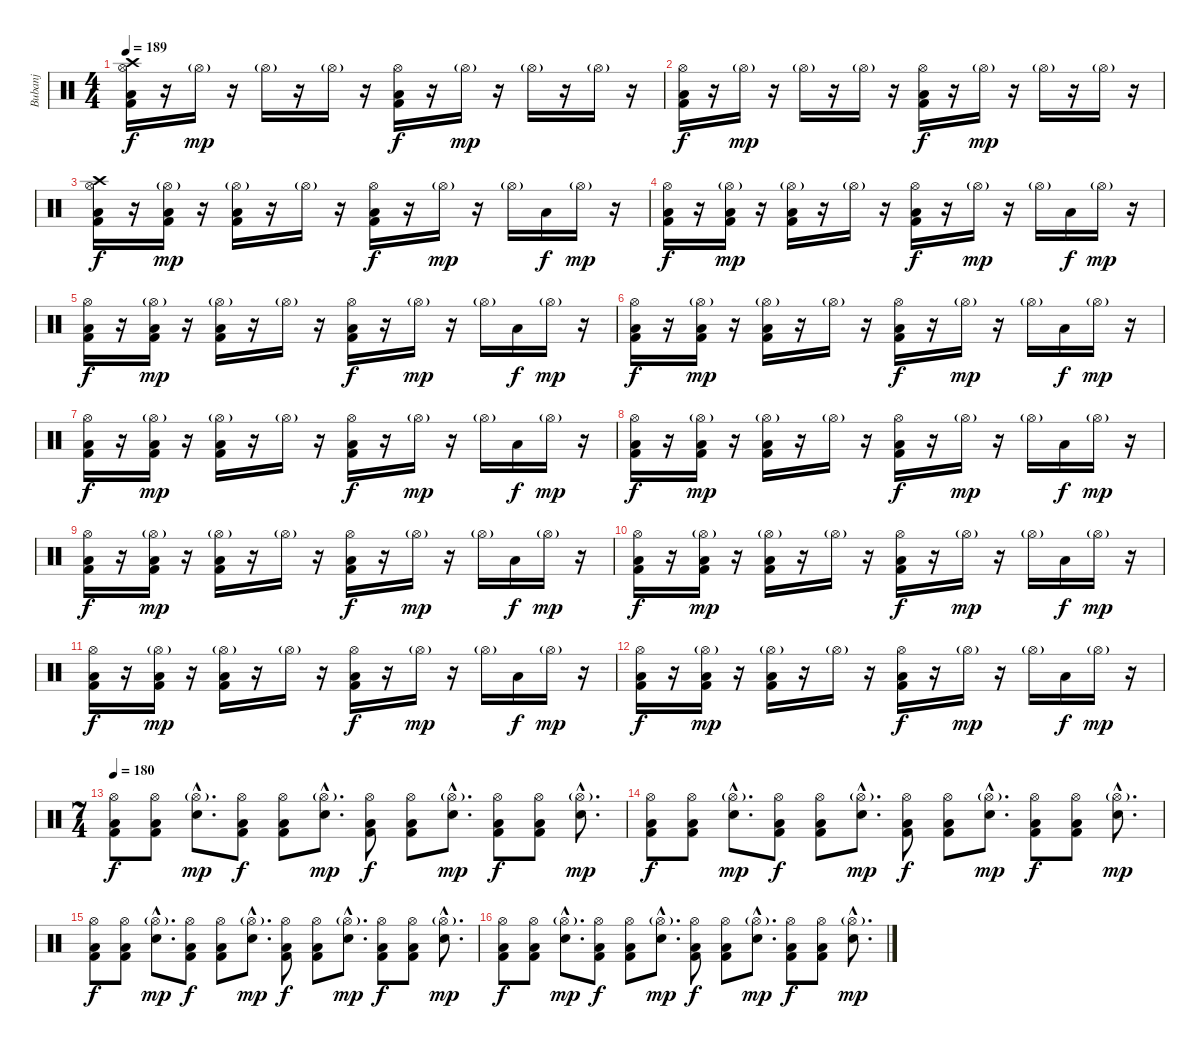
\track ("Bubanj" "Bubanj") {instrument percussion}
\staff {score}
\articulation defaults
\ts (4 4)
\tempo 189
\clef neutral
\ks c
("Hi-Hat (open)" "Crash high (hit)" "Kick (hit) 2" "Low Tom (hit)").16{dy f} r.16 "Hi-Hat (open)"{g}.16{dy mp} r.16 "Hi-Hat (open)"{g}.16 r.16 "Hi-Hat (open)"{g}.16 r.16 ("Hi-Hat (open)" "Kick (hit) 2" "Low Tom (hit)").16{dy f} r.16 "Hi-Hat (open)"{g}.16{dy mp} r.16 "Hi-Hat (open)"{g}.16 r.16 "Hi-Hat (open)"{g}.16 r.16 |
("Hi-Hat (open)" "Kick (hit) 2" "Low Tom (hit)").16{dy f} r.16 "Hi-Hat (open)"{g}.16{dy mp} r.16 "Hi-Hat (open)"{g}.16 r.16 "Hi-Hat (open)"{g}.16 r.16 ("Hi-Hat (open)" "Kick (hit) 2" "Low Tom (hit)").16{dy f} r.16 "Hi-Hat (open)"{g}.16{dy mp} r.16 "Hi-Hat (open)"{g}.16 r.16 "Hi-Hat (open)"{g}.16 r.16 |
("Hi-Hat (open)" "Crash high (hit)" "Kick (hit) 2" "Low Tom (hit)").16{dy f} r.16 ("Hi-Hat (open)"{g} "Kick (hit) 2" "Low Tom (hit)").16{dy mp} r.16 ("Hi-Hat (open)"{g} "Kick (hit) 2" "Low Tom (hit)").16 r.16 "Hi-Hat (open)"{g}.16 r.16 ("Hi-Hat (open)" "Kick (hit) 2" "Low Tom (hit)").16{dy f} r.16 "Hi-Hat (open)"{g}.16{dy mp} r.16 "Hi-Hat (open)"{g}.16 "Low Tom (hit)".16{dy f} "Hi-Hat (open)"{g}.16{dy mp} r.16 |
("Hi-Hat (open)" "Kick (hit) 2" "Low Tom (hit)").16{dy f} r.16 ("Hi-Hat (open)"{g} "Kick (hit) 2" "Low Tom (hit)").16{dy mp} r.16 ("Hi-Hat (open)"{g} "Kick (hit) 2" "Low Tom (hit)").16 r.16 "Hi-Hat (open)"{g}.16 r.16 ("Hi-Hat (open)" "Kick (hit) 2" "Low Tom (hit)").16{dy f} r.16 "Hi-Hat (open)"{g}.16{dy mp} r.16 "Hi-Hat (open)"{g}.16 "Low Tom (hit)".16{dy f} "Hi-Hat (open)"{g}.16{dy mp} r.16 |
("Hi-Hat (open)" "Kick (hit) 2" "Low Tom (hit)").16{dy f} r.16 ("Hi-Hat (open)"{g} "Kick (hit) 2" "Low Tom (hit)").16{dy mp} r.16 ("Hi-Hat (open)"{g} "Kick (hit) 2" "Low Tom (hit)").16 r.16 "Hi-Hat (open)"{g}.16 r.16 ("Hi-Hat (open)" "Kick (hit) 2" "Low Tom (hit)").16{dy f} r.16 "Hi-Hat (open)"{g}.16{dy mp} r.16 "Hi-Hat (open)"{g}.16 "Low Tom (hit)".16{dy f} "Hi-Hat (open)"{g}.16{dy mp} r.16 |
("Hi-Hat (open)" "Kick (hit) 2" "Low Tom (hit)").16{dy f} r.16 ("Hi-Hat (open)"{g} "Kick (hit) 2" "Low Tom (hit)").16{dy mp} r.16 ("Hi-Hat (open)"{g} "Kick (hit) 2" "Low Tom (hit)").16 r.16 "Hi-Hat (open)"{g}.16 r.16 ("Hi-Hat (open)" "Kick (hit) 2" "Low Tom (hit)").16{dy f} r.16 "Hi-Hat (open)"{g}.16{dy mp} r.16 "Hi-Hat (open)"{g}.16 "Low Tom (hit)".16{dy f} "Hi-Hat (open)"{g}.16{dy mp} r.16 |
("Hi-Hat (open)" "Kick (hit) 2" "Low Tom (hit)").16{dy f} r.16 ("Hi-Hat (open)"{g} "Kick (hit) 2" "Low Tom (hit)").16{dy mp} r.16 ("Hi-Hat (open)"{g} "Kick (hit) 2" "Low Tom (hit)").16 r.16 "Hi-Hat (open)"{g}.16 r.16 ("Hi-Hat (open)" "Kick (hit) 2" "Low Tom (hit)").16{dy f} r.16 "Hi-Hat (open)"{g}.16{dy mp} r.16 "Hi-Hat (open)"{g}.16 "Low Tom (hit)".16{dy f} "Hi-Hat (open)"{g}.16{dy mp} r.16 |
("Hi-Hat (open)" "Kick (hit) 2" "Low Tom (hit)").16{dy f} r.16 ("Hi-Hat (open)"{g} "Kick (hit) 2" "Low Tom (hit)").16{dy mp} r.16 ("Hi-Hat (open)"{g} "Kick (hit) 2" "Low Tom (hit)").16 r.16 "Hi-Hat (open)"{g}.16 r.16 ("Hi-Hat (open)" "Kick (hit) 2" "Low Tom (hit)").16{dy f} r.16 "Hi-Hat (open)"{g}.16{dy mp} r.16 "Hi-Hat (open)"{g}.16 "Low Tom (hit)".16{dy f} "Hi-Hat (open)"{g}.16{dy mp} r.16 |
("Hi-Hat (open)" "Kick (hit) 2" "Low Tom (hit)").16{dy f} r.16 ("Hi-Hat (open)"{g} "Kick (hit) 2" "Low Tom (hit)").16{dy mp} r.16 ("Hi-Hat (open)"{g} "Kick (hit) 2" "Low Tom (hit)").16 r.16 "Hi-Hat (open)"{g}.16 r.16 ("Hi-Hat (open)" "Kick (hit) 2" "Low Tom (hit)").16{dy f} r.16 "Hi-Hat (open)"{g}.16{dy mp} r.16 "Hi-Hat (open)"{g}.16 "Low Tom (hit)".16{dy f} "Hi-Hat (open)"{g}.16{dy mp} r.16 |
("Hi-Hat (open)" "Kick (hit) 2" "Low Tom (hit)").16{dy f} r.16 ("Hi-Hat (open)"{g} "Kick (hit) 2" "Low Tom (hit)").16{dy mp} r.16 ("Hi-Hat (open)"{g} "Kick (hit) 2" "Low Tom (hit)").16 r.16 "Hi-Hat (open)"{g}.16 r.16 ("Hi-Hat (open)" "Kick (hit) 2" "Low Tom (hit)").16{dy f} r.16 "Hi-Hat (open)"{g}.16{dy mp} r.16 "Hi-Hat (open)"{g}.16 "Low Tom (hit)".16{dy f} "Hi-Hat (open)"{g}.16{dy mp} r.16 |
("Hi-Hat (open)" "Kick (hit) 2" "Low Tom (hit)").16{dy f} r.16 ("Hi-Hat (open)"{g} "Kick (hit) 2" "Low Tom (hit)").16{dy mp} r.16 ("Hi-Hat (open)"{g} "Kick (hit) 2" "Low Tom (hit)").16 r.16 "Hi-Hat (open)"{g}.16 r.16 ("Hi-Hat (open)" "Kick (hit) 2" "Low Tom (hit)").16{dy f} r.16 "Hi-Hat (open)"{g}.16{dy mp} r.16 "Hi-Hat (open)"{g}.16 "Low Tom (hit)".16{dy f} "Hi-Hat (open)"{g}.16{dy mp} r.16 |
("Hi-Hat (open)" "Kick (hit) 2" "Low Tom (hit)").16{dy f} r.16 ("Hi-Hat (open)"{g} "Kick (hit) 2" "Low Tom (hit)").16{dy mp} r.16 ("Hi-Hat (open)"{g} "Kick (hit) 2" "Low Tom (hit)").16 r.16 "Hi-Hat (open)"{g}.16 r.16 ("Hi-Hat (open)" "Kick (hit) 2" "Low Tom (hit)").16{dy f} r.16 "Hi-Hat (open)"{g}.16{dy mp} r.16 "Hi-Hat (open)"{g}.16 "Low Tom (hit)".16{dy f} "Hi-Hat (open)"{g}.16{dy mp} r.16 |
\ts (7 4)
\tempo 180
("Hi-Hat (open)" "Kick (hit) 2" "Low Tom (hit)").8{dy f} ("Hi-Hat (open)" "Kick (hit) 2" "Low Tom (hit)").8 ("Hi-Hat (open)"{g hac} "Electric Snare (hit)"{hac}).8{d dy mp} ("Hi-Hat (open)" "Kick (hit) 2" "Low Tom (hit)").8{dy f} ("Hi-Hat (open)" "Kick (hit) 2" "Low Tom (hit)").8 ("Hi-Hat (open)"{g hac} "Electric Snare (hit)"{hac}).8{d dy mp} ("Hi-Hat (open)" "Low Tom (hit)" "Kick (hit) 2").8{dy f} ("Hi-Hat (open)" "Low Tom (hit)" "Kick (hit) 2").8 ("Hi-Hat (open)"{g hac} "Electric Snare (hit)"{hac}).8{d dy mp} ("Hi-Hat (open)" "Low Tom (hit)" "Kick (hit) 2").8{dy f} ("Hi-Hat (open)" "Low Tom (hit)" "Kick (hit) 2").8 ("Hi-Hat (open)"{g hac} "Electric Snare (hit)"{hac}).8{d dy mp} |
("Hi-Hat (open)" "Kick (hit) 2" "Low Tom (hit)").8{dy f} ("Hi-Hat (open)" "Kick (hit) 2" "Low Tom (hit)").8 ("Hi-Hat (open)"{g hac} "Electric Snare (hit)"{hac}).8{d dy mp} ("Hi-Hat (open)" "Kick (hit) 2" "Low Tom (hit)").8{dy f} ("Hi-Hat (open)" "Kick (hit) 2" "Low Tom (hit)").8 ("Hi-Hat (open)"{g hac} "Electric Snare (hit)"{hac}).8{d dy mp} ("Hi-Hat (open)" "Low Tom (hit)" "Kick (hit) 2").8{dy f} ("Hi-Hat (open)" "Low Tom (hit)" "Kick (hit) 2").8 ("Hi-Hat (open)"{g hac} "Electric Snare (hit)"{hac}).8{d dy mp} ("Hi-Hat (open)" "Low Tom (hit)" "Kick (hit) 2").8{dy f} ("Hi-Hat (open)" "Low Tom (hit)" "Kick (hit) 2").8 ("Hi-Hat (open)"{g hac} "Electric Snare (hit)"{hac}).8{d dy mp} |
("Hi-Hat (open)" "Kick (hit) 2" "Low Tom (hit)").8{dy f} ("Hi-Hat (open)" "Kick (hit) 2" "Low Tom (hit)").8 ("Hi-Hat (open)"{g hac} "Electric Snare (hit)"{hac}).8{d dy mp} ("Hi-Hat (open)" "Kick (hit) 2" "Low Tom (hit)").8{dy f} ("Hi-Hat (open)" "Kick (hit) 2" "Low Tom (hit)").8 ("Hi-Hat (open)"{g hac} "Electric Snare (hit)"{hac}).8{d dy mp} ("Hi-Hat (open)" "Low Tom (hit)" "Kick (hit) 2").8{dy f} ("Hi-Hat (open)" "Low Tom (hit)" "Kick (hit) 2").8 ("Hi-Hat (open)"{g hac} "Electric Snare (hit)"{hac}).8{d dy mp} ("Hi-Hat (open)" "Low Tom (hit)" "Kick (hit) 2").8{dy f} ("Hi-Hat (open)" "Low Tom (hit)" "Kick (hit) 2").8 ("Hi-Hat (open)"{g hac} "Electric Snare (hit)"{hac}).8{d dy mp} |
("Hi-Hat (open)" "Kick (hit) 2" "Low Tom (hit)").8{dy f} ("Hi-Hat (open)" "Kick (hit) 2" "Low Tom (hit)").8 ("Hi-Hat (open)"{g hac} "Electric Snare (hit)"{hac}).8{d dy mp} ("Hi-Hat (open)" "Kick (hit) 2" "Low Tom (hit)").8{dy f} ("Hi-Hat (open)" "Kick (hit) 2" "Low Tom (hit)").8 ("Hi-Hat (open)"{g hac} "Electric Snare (hit)"{hac}).8{d dy mp} ("Hi-Hat (open)" "Low Tom (hit)" "Kick (hit) 2").8{dy f} ("Hi-Hat (open)" "Low Tom (hit)" "Kick (hit) 2").8 ("Hi-Hat (open)"{g hac} "Electric Snare (hit)"{hac}).8{d dy mp} ("Hi-Hat (open)" "Low Tom (hit)" "Kick (hit) 2").8{dy f} ("Hi-Hat (open)" "Low Tom (hit)" "Kick (hit) 2").8 ("Hi-Hat (open)"{g hac} "Electric Snare (hit)"{hac}).8{d dy mp}
